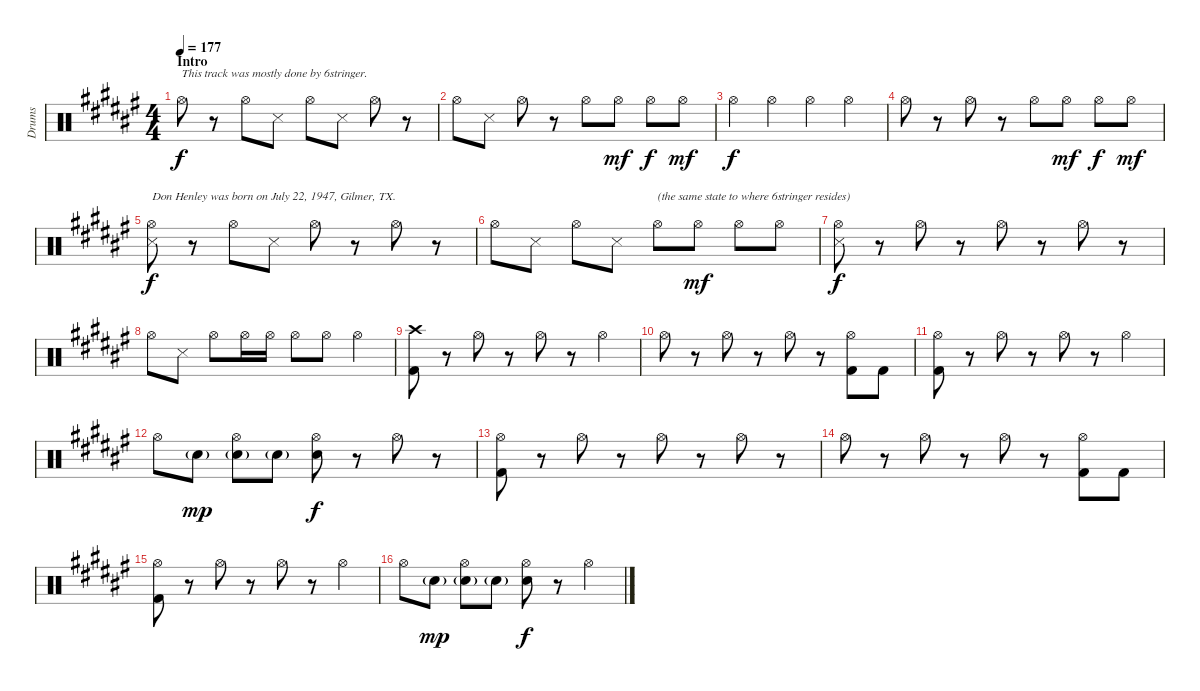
\track ("Drums" "Drums") {instrument percussion}
\staff {score}
\articulation defaults
\ts (4 4)
\section ("" "Intro")
\tempo 177
\clef neutral
\ks d#minor "Hi-Hat (open)".8{txt "This track was mostly done by 6stringer." dy f}
r.8 "Hi-Hat (open)".8 "Snare (side stick) 3".8 "Hi-Hat (open)".8 "Snare (side stick) 3".8 "Hi-Hat (open)".8 r.8 |
"Hi-Hat (open)".8 "Snare (side stick) 3".8 "Hi-Hat (open)".8 r.8 "Hi-Hat (open)".8 "Hi-Hat (open)".8{dy mf} "Hi-Hat (open)".8{dy f} "Hi-Hat (open)".8{dy mf} |
"Hi-Hat (open)".4{dy f} "Hi-Hat (open)".4 "Hi-Hat (open)".4 "Hi-Hat (open)".4 |
"Hi-Hat (open)".8 r.8 "Hi-Hat (open)".8 r.8 "Hi-Hat (open)".8 "Hi-Hat (open)".8{dy mf} "Hi-Hat (open)".8{dy f} "Hi-Hat (open)".8{dy mf} |
("Hi-Hat (open)" "Snare (side stick) 3").8{txt "Don Henley was born on July 22, 1947, Gilmer, TX." dy f} r.8 "Hi-Hat (open)".8 "Snare (side stick) 3".8 "Hi-Hat (open)".8 r.8 "Hi-Hat (open)".8 r.8 |
"Hi-Hat (open)".8 "Snare (side stick) 3".8 "Hi-Hat (open)".8 "Snare (side stick) 3".8 "Hi-Hat (open)".8{txt "(the same state to where 6stringer resides)"} "Hi-Hat (open)".8{dy mf} "Hi-Hat (open)".8 "Hi-Hat (open)".8 |
("Hi-Hat (open)" "Snare (side stick) 3").8{dy f} r.8 "Hi-Hat (open)".8 r.8 "Hi-Hat (open)".8 r.8 "Hi-Hat (open)".8 r.8 |
"Hi-Hat (open)".8 "Snare (side stick) 3".8 "Hi-Hat (open)".8 "Hi-Hat (open)".16 "Hi-Hat (open)".16 "Hi-Hat (open)".8 "Hi-Hat (open)".8 "Hi-Hat (open)".4 |
("Crash high (hit)" "Kick (hit) 2").8 r.8 "Hi-Hat (open)".8 r.8 "Hi-Hat (open)".8 r.8 "Hi-Hat (open)".4 |
"Hi-Hat (open)".8 r.8 "Hi-Hat (open)".8 r.8 "Hi-Hat (open)".8 r.8 ("Hi-Hat (open)" "Kick (hit) 2").8 "Kick (hit) 2".8 |
("Hi-Hat (open)" "Kick (hit) 2").8 r.8 "Hi-Hat (open)".8 r.8 "Hi-Hat (open)".8 r.8 "Hi-Hat (open)".4 |
"Hi-Hat (open)".8 "Snare (hit) 2"{g}.8{dy mp} ("Hi-Hat (open)" "Snare (hit) 2"{g}).8 "Snare (hit) 2"{g}.8 ("Hi-Hat (open)" "Snare (hit) 2").8{dy f} r.8 "Hi-Hat (open)".8 r.8 |
("Hi-Hat (open)" "Kick (hit) 2").8 r.8 "Hi-Hat (open)".8 r.8 "Hi-Hat (open)".8 r.8 "Hi-Hat (open)".8 r.8 |
"Hi-Hat (open)".8 r.8 "Hi-Hat (open)".8 r.8 "Hi-Hat (open)".8 r.8 ("Hi-Hat (open)" "Kick (hit) 2").8 "Kick (hit) 2".8 |
("Hi-Hat (open)" "Kick (hit) 2").8 r.8 "Hi-Hat (open)".8 r.8 "Hi-Hat (open)".8 r.8 "Hi-Hat (open)".4 |
"Hi-Hat (open)".8 "Snare (hit) 2"{g}.8{dy mp} ("Hi-Hat (open)" "Snare (hit) 2"{g}).8 "Snare (hit) 2"{g}.8 ("Hi-Hat (open)" "Snare (hit) 2").8{dy f} r.8 "Hi-Hat (open)".4
